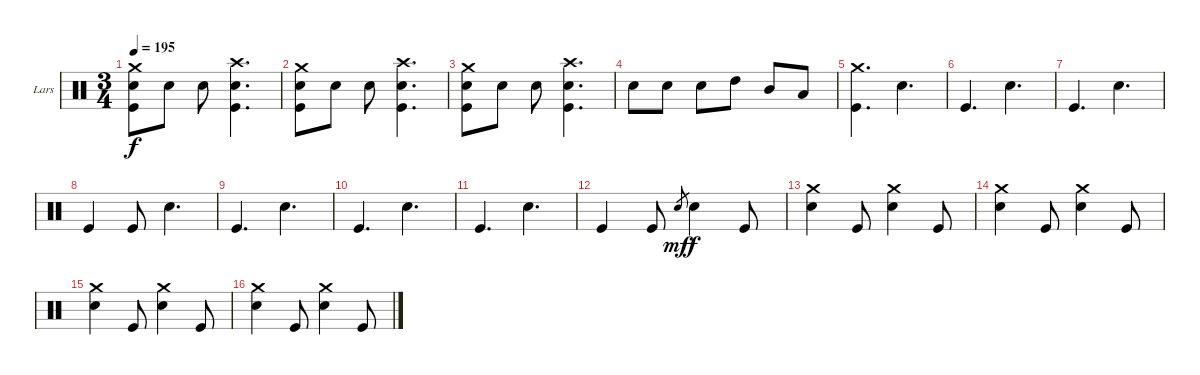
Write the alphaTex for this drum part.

\bracketExtendMode groupsimilarinstruments
\firstSystemTrackNameOrientation horizontal
\otherSystemsTrackNameOrientation horizontal
\track ("Drumkit" "Lars") {instrument percussion}
\staff {score}
\articulation defaults
\ts (3 4)
\tempo 195
\clef neutral
\ks c
("Crash medium (hit)" "Snare (hit) 2" "Kick (hit)").8{dy f} "Snare (hit) 2".8 "Snare (hit) 2".8 ("Crash high (hit)" "Snare (hit) 2" "Kick (hit)").4{d} |
("Crash medium (hit)" "Snare (hit) 2" "Kick (hit)").8 "Snare (hit) 2".8 "Snare (hit) 2".8 ("Crash high (hit)" "Snare (hit) 2" "Kick (hit)").4{d} |
("Crash medium (hit)" "Snare (hit) 2" "Kick (hit)").8 "Snare (hit) 2".8 "Snare (hit) 2".8 ("Crash high (hit)" "Snare (hit) 2" "Kick (hit)").4{d} |
"Snare (hit) 2".8 "Snare (hit) 2".8 "Snare (hit) 2".8 "High Tom (hit)".8 "Mid Tom (hit)".8 "Low Tom (hit)".8 |
("Crash medium (hit)" "Kick (hit)").4{d} "Snare (hit) 2".4{d} |
"Kick (hit)".4{d} "Snare (hit) 2".4{d} |
"Kick (hit)".4{d} "Snare (hit) 2".4{d} |
"Kick (hit)".4 "Kick (hit)".8 "Snare (hit) 2".4{d} |
"Kick (hit)".4{d} "Snare (hit) 2".4{d} |
"Kick (hit)".4{d} "Snare (hit) 2".4{d} |
"Kick (hit)".4{d} "Snare (hit) 2".4{d} |
"Kick (hit)".4 "Kick (hit)".8 "Snare (hit) 2".8{gr dy mf} "Snare (hit) 2".4{dy f} "Kick (hit)".8 |
("Crash medium (hit)" "Snare (hit) 2").4 "Kick (hit)".8 ("Crash medium (hit)" "Snare (hit) 2").4 "Kick (hit)".8 |
("Crash medium (hit)" "Snare (hit) 2").4 "Kick (hit)".8 ("Crash medium (hit)" "Snare (hit) 2").4 "Kick (hit)".8 |
("Crash medium (hit)" "Snare (hit) 2").4 "Kick (hit)".8 ("Crash medium (hit)" "Snare (hit) 2").4 "Kick (hit)".8 |
("Crash medium (hit)" "Snare (hit) 2").4 "Kick (hit)".8 ("Crash medium (hit)" "Snare (hit) 2").4 "Kick (hit)".8
